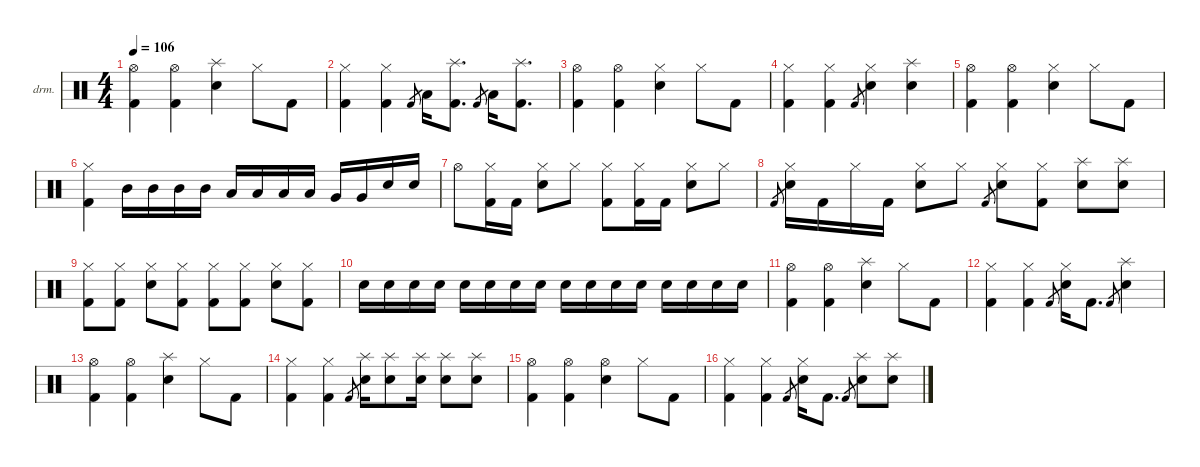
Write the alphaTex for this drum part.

\defaultSystemsLayout 4
\hideDynamics
\bracketExtendMode nobrackets
\firstSystemTrackNameOrientation horizontal
\otherSystemsTrackNameOrientation horizontal
\track ("Lars Ulrich" "drm.") {instrument percussion}
\staff {score}
\articulation defaults
\ts (4 4)
\tempo 106
\clef neutral
\ks c
("Hi-Hat (open)" "Kick (hit) 2").4{dy f} ("Hi-Hat (open)" "Kick (hit) 2").4 ("Splash (hit)" "Snare (hit) 2").4{dy fff} "Hi-Hat (closed)".8{dy f} "Kick (hit) 2".8 |
("Hi-Hat (closed)" "Kick (hit) 2").4 ("Hi-Hat (closed)" "Kick (hit) 2").4 "Kick (hit) 2".8{gr dy mf} "Low Tom (hit)".16{dy f} ("Splash (hit)" "Kick (hit) 2").8{d dy fff} "Kick (hit) 2".8{gr dy mf} "Low Tom (hit)".16{dy f} ("Splash (hit)" "Kick (hit) 2").8{d dy fff} |
("Hi-Hat (open)" "Kick (hit) 2").4{dy f} ("Hi-Hat (open)" "Kick (hit) 2").4 ("Hi-Hat (closed)" "Snare (hit) 2").4 "Hi-Hat (closed)".8 "Kick (hit) 2".8 |
("Hi-Hat (closed)" "Kick (hit) 2").4 ("Hi-Hat (closed)" "Kick (hit) 2").4 "Kick (hit) 2".8{gr dy mf} ("Hi-Hat (closed)" "Snare (hit) 2").4{dy f} ("Splash (hit)" "Snare (hit) 2").4{dy fff} |
("Hi-Hat (open)" "Kick (hit) 2").4{dy f} ("Hi-Hat (open)" "Kick (hit) 2").4 ("Hi-Hat (closed)" "Snare (hit) 2").4 "Hi-Hat (closed)".8 "Kick (hit) 2".8 |
("Hi-Hat (closed)" "Kick (hit) 2").4 "Mid Tom (hit)".16 "Mid Tom (hit)".16 "Mid Tom (hit)".16 "Mid Tom (hit)".16 "Low Tom (hit)".16 "Low Tom (hit)".16 "Low Tom (hit)".16 "Low Tom (hit)".16 "Very Low Tom (hit)".16 "Very Low Tom (hit)".16 "Snare (hit) 2".16 "Snare (hit) 2".16 |
"Hi-Hat (open)".8 ("Hi-Hat (closed)" "Kick (hit) 2").16 "Kick (hit) 2".16 ("Hi-Hat (closed)" "Snare (hit) 2").8 "Hi-Hat (closed)".8 ("Hi-Hat (closed)" "Kick (hit) 2").8 ("Hi-Hat (closed)" "Kick (hit) 2").16 "Kick (hit) 2".16 ("Hi-Hat (closed)" "Snare (hit) 2").8 "Hi-Hat (closed)".8 |
"Kick (hit) 2".8{gr dy mf} ("Hi-Hat (closed)" "Snare (hit) 2").16{dy f} "Kick (hit) 2".16 "Hi-Hat (closed)".16 "Kick (hit) 2".16 ("Hi-Hat (closed)" "Snare (hit) 2").8 "Hi-Hat (closed)".8 "Kick (hit) 2".8{gr dy mf} ("Hi-Hat (closed)" "Snare (hit) 2").8{dy f} ("Hi-Hat (closed)" "Kick (hit) 2").8 ("Splash (hit)" "Snare (hit) 2").8{dy fff} ("Splash (hit)" "Snare (hit) 2").8 |
("Hi-Hat (closed)" "Kick (hit) 2").8{dy f} ("Hi-Hat (closed)" "Kick (hit) 2").8 ("Hi-Hat (closed)" "Snare (hit) 2").8 ("Hi-Hat (closed)" "Kick (hit) 2").8 ("Hi-Hat (closed)" "Kick (hit) 2").8 ("Hi-Hat (closed)" "Kick (hit) 2").8 ("Hi-Hat (closed)" "Snare (hit) 2").8 ("Hi-Hat (closed)" "Kick (hit) 2").8 |
"Snare (hit) 2".16{dy mf} "Snare (hit) 2".16 "Snare (hit) 2".16 "Snare (hit) 2".16 "Snare (hit) 2".16{dy f} "Snare (hit) 2".16 "Snare (hit) 2".16 "Snare (hit) 2".16 "Snare (hit) 2".16 "Snare (hit) 2".16 "Snare (hit) 2".16 "Snare (hit) 2".16 "Snare (hit) 2".16 "Snare (hit) 2".16 "Snare (hit) 2".16 "Snare (hit) 2".16 |
("Hi-Hat (open)" "Kick (hit) 2").4 ("Hi-Hat (open)" "Kick (hit) 2").4 ("Splash (hit)" "Snare (hit) 2").4{dy fff} "Hi-Hat (closed)".8{dy f} "Kick (hit) 2".8 |
("Hi-Hat (closed)" "Kick (hit) 2").4 ("Hi-Hat (closed)" "Kick (hit) 2").4 "Kick (hit) 2".8{gr dy mf} ("Hi-Hat (closed)" "Snare (hit) 2").16{dy f} "Kick (hit) 2".8{d} "Kick (hit) 2".8{gr dy mf} ("Splash (hit)" "Snare (hit) 2").4{dy fff} |
("Hi-Hat (open)" "Kick (hit) 2").4{dy f} ("Hi-Hat (open)" "Kick (hit) 2").4 ("Splash (hit)" "Snare (hit) 2").4 "Hi-Hat (closed)".8 "Kick (hit) 2".8 |
("Hi-Hat (closed)" "Kick (hit) 2").4 ("Hi-Hat (closed)" "Kick (hit) 2").4 "Kick (hit) 2".8{gr dy mf} ("Splash (hit)" "Snare (hit) 2").16{dy fff} ("Splash (hit)" "Snare (hit) 2").8 ("Splash (hit)" "Snare (hit) 2").16 ("Splash (hit)" "Snare (hit) 2").8 ("Splash (hit)" "Snare (hit) 2").8 |
("Hi-Hat (open)" "Kick (hit) 2").4{dy f} ("Hi-Hat (open)" "Kick (hit) 2").4 ("Hi-Hat (open)" "Snare (hit) 2").4 "Hi-Hat (closed)".8 "Kick (hit) 2".8 |
("Hi-Hat (closed)" "Kick (hit) 2").4 ("Hi-Hat (closed)" "Kick (hit) 2").4 "Kick (hit) 2".8{gr dy mf} ("Hi-Hat (closed)" "Snare (hit) 2").16{dy f} "Kick (hit) 2".8{d} "Kick (hit) 2".8{gr dy mf} ("Splash (hit)" "Snare (hit) 2").8{dy fff} ("Splash (hit)" "Snare (hit) 2").8
